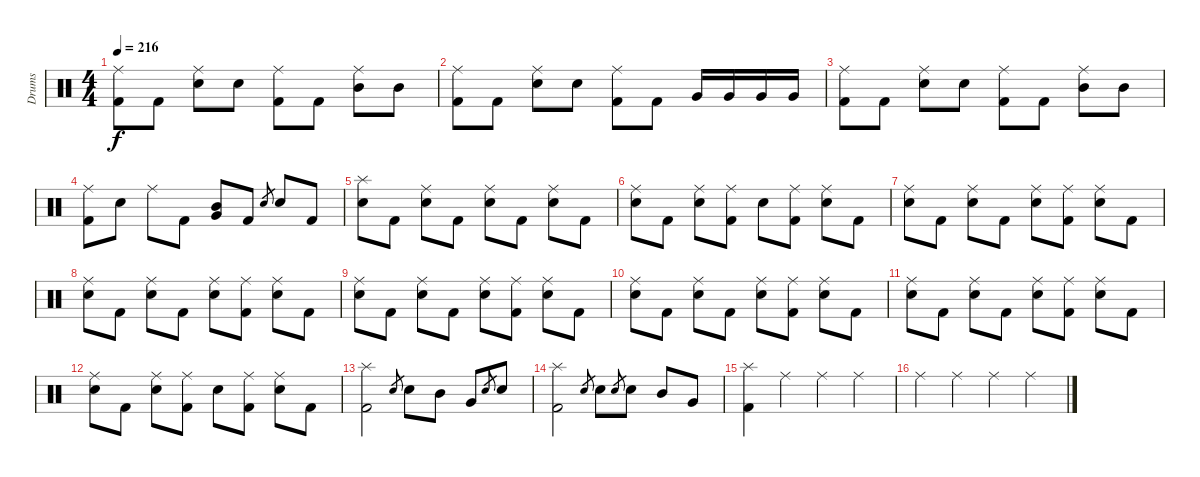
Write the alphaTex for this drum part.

\track ("Drums" "Drums") {instrument percussion}
\staff {score}
\articulation defaults
\ts (4 4)
\tempo 216
\clef neutral
\ks c
("Ride (middle)" "Kick (hit) 2").8{dy f} "Kick (hit) 2".8 ("Ride (middle)" "Electric Snare (hit)").8 "Electric Snare (hit)".8 ("Ride (middle)" "Kick (hit) 2").8 "Kick (hit) 2".8 ("Ride (middle)" "Mid Tom (hit)").8 "Mid Tom (hit)".8 |
("Ride (middle)" "Kick (hit) 2").8 "Kick (hit) 2".8 ("Ride (middle)" "Electric Snare (hit)").8 "Electric Snare (hit)".8 ("Ride (middle)" "Kick (hit) 2").8 "Kick (hit) 2".8 "Very Low Tom (hit)".16 "Very Low Tom (hit)".16 "Very Low Tom (hit)".16 "Very Low Tom (hit)".16 |
("Ride (middle)" "Kick (hit) 2").8 "Kick (hit) 2".8 ("Ride (middle)" "Electric Snare (hit)").8 "Electric Snare (hit)".8 ("Ride (middle)" "Kick (hit) 2").8 "Kick (hit) 2".8 ("Ride (middle)" "Mid Tom (hit)").8 "Mid Tom (hit)".8 |
("Ride (middle)" "Kick (hit) 2").8 "Electric Snare (hit)".8 "Ride (middle)".8 "Kick (hit) 2".8 ("Mid Tom (hit)" "Very Low Tom (hit)").8 "Kick (hit) 2".8 "Electric Snare (hit)".8{gr} "Electric Snare (hit)".8 "Kick (hit) 2".8 |
("Splash (hit)" "Electric Snare (hit)").8 "Kick (hit) 2".8 ("Ride (middle)" "Electric Snare (hit)").8 "Kick (hit) 2".8 ("Ride (middle)" "Electric Snare (hit)").8 "Kick (hit) 2".8 ("Ride (middle)" "Electric Snare (hit)").8 "Kick (hit) 2".8 |
("Ride (middle)" "Electric Snare (hit)").8 "Kick (hit) 2".8 ("Ride (middle)" "Electric Snare (hit)").8 ("Ride (middle)" "Kick (hit) 2").8 "Electric Snare (hit)".8 ("Ride (middle)" "Kick (hit) 2").8 ("Ride (middle)" "Electric Snare (hit)").8 "Kick (hit) 2".8 |
("Ride (middle)" "Electric Snare (hit)").8 "Kick (hit) 2".8 ("Ride (middle)" "Electric Snare (hit)").8 "Kick (hit) 2".8 ("Ride (middle)" "Electric Snare (hit)").8 ("Ride (middle)" "Kick (hit) 2").8 ("Ride (middle)" "Electric Snare (hit)").8 "Kick (hit) 2".8 |
("Ride (middle)" "Electric Snare (hit)").8 "Kick (hit) 2".8 ("Ride (middle)" "Electric Snare (hit)").8 "Kick (hit) 2".8 ("Ride (middle)" "Electric Snare (hit)").8 ("Ride (middle)" "Kick (hit) 2").8 ("Ride (middle)" "Electric Snare (hit)").8 "Kick (hit) 2".8 |
("Ride (middle)" "Electric Snare (hit)").8 "Kick (hit) 2".8 ("Ride (middle)" "Electric Snare (hit)").8 "Kick (hit) 2".8 ("Ride (middle)" "Electric Snare (hit)").8 ("Ride (middle)" "Kick (hit) 2").8 ("Ride (middle)" "Electric Snare (hit)").8 "Kick (hit) 2".8 |
("Ride (middle)" "Electric Snare (hit)").8 "Kick (hit) 2".8 ("Ride (middle)" "Electric Snare (hit)").8 "Kick (hit) 2".8 ("Ride (middle)" "Electric Snare (hit)").8 ("Ride (middle)" "Kick (hit) 2").8 ("Ride (middle)" "Electric Snare (hit)").8 "Kick (hit) 2".8 |
("Ride (middle)" "Electric Snare (hit)").8 "Kick (hit) 2".8 ("Ride (middle)" "Electric Snare (hit)").8 "Kick (hit) 2".8 ("Ride (middle)" "Electric Snare (hit)").8 ("Ride (middle)" "Kick (hit) 2").8 ("Ride (middle)" "Electric Snare (hit)").8 "Kick (hit) 2".8 |
("Ride (middle)" "Electric Snare (hit)").8 "Kick (hit) 2".8 ("Ride (middle)" "Electric Snare (hit)").8 ("Ride (middle)" "Kick (hit) 2").8 "Electric Snare (hit)".8 ("Ride (middle)" "Kick (hit) 2").8 ("Ride (middle)" "Electric Snare (hit)").8 "Kick (hit) 2".8 |
("Splash (hit)" "Kick (hit) 2").2 "Electric Snare (hit)".8{gr} "Electric Snare (hit)".8 "Mid Tom (hit)".8 "Very Low Tom (hit)".8 "Electric Snare (hit)".8{gr} "Electric Snare (hit)".8 |
("Splash (hit)" "Kick (hit) 2").2 "Electric Snare (hit)".8{gr} "Electric Snare (hit)".8 "Electric Snare (hit)".8{gr} "Electric Snare (hit)".8 "Mid Tom (hit)".8 "Very Low Tom (hit)".8 |
("Splash (hit)" "Kick (hit) 2").4 "Ride (middle)".4 "Ride (middle)".4 "Ride (middle)".4 |
"Ride (middle)".4 "Ride (middle)".4 "Ride (middle)".4 "Ride (middle)".4
